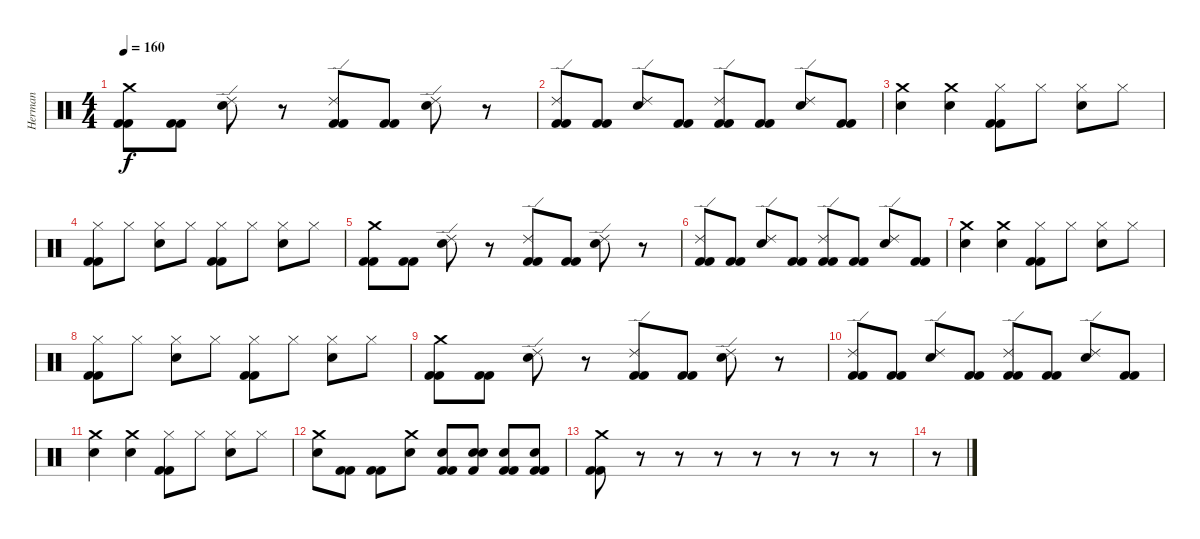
\track ("Herman" "Herman") {instrument percussion}
\staff {score}
\articulation defaults
\ts (4 4)
\tempo 160
\clef neutral
\ks c
("Crash medium (hit)" "Kick (hit) 2" "Kick (hit) 2").8{dy f} ("Kick (hit) 2" "Kick (hit) 2").8 ("Electric Snare (hit)" "Ride (edge) 2").8 r.8 ("Ride (edge) 2" "Kick (hit) 2" "Kick (hit) 2").8 ("Kick (hit) 2" "Kick (hit) 2").8 ("Electric Snare (hit)" "Ride (edge) 2").8 r.8 |
("Kick (hit) 2" "Kick (hit) 2" "Ride (edge) 2").8 ("Kick (hit) 2" "Kick (hit) 2").8 ("Electric Snare (hit)" "Ride (edge) 2").8 ("Kick (hit) 2" "Kick (hit) 2").8 ("Kick (hit) 2" "Kick (hit) 2" "Ride (edge) 2").8 ("Kick (hit) 2" "Kick (hit) 2").8 ("Electric Snare (hit)" "Ride (edge) 2").8 ("Kick (hit) 2" "Kick (hit) 2").8 |
("Crash medium (hit)" "Electric Snare (hit)").4 ("Crash medium (hit)" "Electric Snare (hit)").4 ("Hi-Hat (closed)" "Kick (hit) 2" "Kick (hit) 2").8 "Hi-Hat (closed)".8 ("Electric Snare (hit)" "Hi-Hat (closed)").8 "Hi-Hat (closed)".8 |
("Kick (hit) 2" "Kick (hit) 2" "Hi-Hat (closed)").8 "Hi-Hat (closed)".8 ("Hi-Hat (closed)" "Electric Snare (hit)").8 "Hi-Hat (closed)".8 ("Hi-Hat (closed)" "Kick (hit) 2" "Kick (hit) 2").8 "Hi-Hat (closed)".8 ("Electric Snare (hit)" "Hi-Hat (closed)").8 "Hi-Hat (closed)".8 |
("Crash medium (hit)" "Kick (hit) 2" "Kick (hit) 2").8 ("Kick (hit) 2" "Kick (hit) 2").8 ("Electric Snare (hit)" "Ride (edge) 2").8 r.8 ("Ride (edge) 2" "Kick (hit) 2" "Kick (hit) 2").8 ("Kick (hit) 2" "Kick (hit) 2").8 ("Electric Snare (hit)" "Ride (edge) 2").8 r.8 |
("Kick (hit) 2" "Kick (hit) 2" "Ride (edge) 2").8 ("Kick (hit) 2" "Kick (hit) 2").8 ("Electric Snare (hit)" "Ride (edge) 2").8 ("Kick (hit) 2" "Kick (hit) 2").8 ("Kick (hit) 2" "Kick (hit) 2" "Ride (edge) 2").8 ("Kick (hit) 2" "Kick (hit) 2").8 ("Electric Snare (hit)" "Ride (edge) 2").8 ("Kick (hit) 2" "Kick (hit) 2").8 |
("Crash medium (hit)" "Electric Snare (hit)").4 ("Crash medium (hit)" "Electric Snare (hit)").4 ("Hi-Hat (closed)" "Kick (hit) 2" "Kick (hit) 2").8 "Hi-Hat (closed)".8 ("Electric Snare (hit)" "Hi-Hat (closed)").8 "Hi-Hat (closed)".8 |
("Kick (hit) 2" "Kick (hit) 2" "Hi-Hat (closed)").8 "Hi-Hat (closed)".8 ("Hi-Hat (closed)" "Electric Snare (hit)").8 "Hi-Hat (closed)".8 ("Hi-Hat (closed)" "Kick (hit) 2" "Kick (hit) 2").8 "Hi-Hat (closed)".8 ("Electric Snare (hit)" "Hi-Hat (closed)").8 "Hi-Hat (closed)".8 |
("Crash medium (hit)" "Kick (hit) 2" "Kick (hit) 2").8 ("Kick (hit) 2" "Kick (hit) 2").8 ("Electric Snare (hit)" "Ride (edge) 2").8 r.8 ("Ride (edge) 2" "Kick (hit) 2" "Kick (hit) 2").8 ("Kick (hit) 2" "Kick (hit) 2").8 ("Electric Snare (hit)" "Ride (edge) 2").8 r.8 |
("Kick (hit) 2" "Kick (hit) 2" "Ride (edge) 2").8 ("Kick (hit) 2" "Kick (hit) 2").8 ("Electric Snare (hit)" "Ride (edge) 2").8 ("Kick (hit) 2" "Kick (hit) 2").8 ("Kick (hit) 2" "Kick (hit) 2" "Ride (edge) 2").8 ("Kick (hit) 2" "Kick (hit) 2").8 ("Electric Snare (hit)" "Ride (edge) 2").8 ("Kick (hit) 2" "Kick (hit) 2").8 |
("Crash medium (hit)" "Electric Snare (hit)").4 ("Crash medium (hit)" "Electric Snare (hit)").4 ("Hi-Hat (closed)" "Kick (hit) 2" "Kick (hit) 2").8 "Hi-Hat (closed)".8 ("Electric Snare (hit)" "Hi-Hat (closed)").8 "Hi-Hat (closed)".8 |
("Crash medium (hit)" "Electric Snare (hit)").8 ("Kick (hit) 2" "Kick (hit) 2").8 ("Kick (hit) 2" "Kick (hit) 2").8 ("Crash medium (hit)" "Electric Snare (hit)").8 ("Kick (hit) 2" "Electric Snare (hit)" "Kick (hit) 2").8 ("Electric Snare (hit)" "Electric Snare (hit)" "Kick (hit) 2").8 ("Kick (hit) 2" "Kick (hit) 2" "Electric Snare (hit)").8 ("Electric Snare (hit)" "Kick (hit) 2" "Kick (hit) 2").8 |
("Crash medium (hit)" "Kick (hit) 2" "Kick (hit) 2").8 r.8 r.8 r.8 r.8 r.8 r.8 r.8 |
r.8
